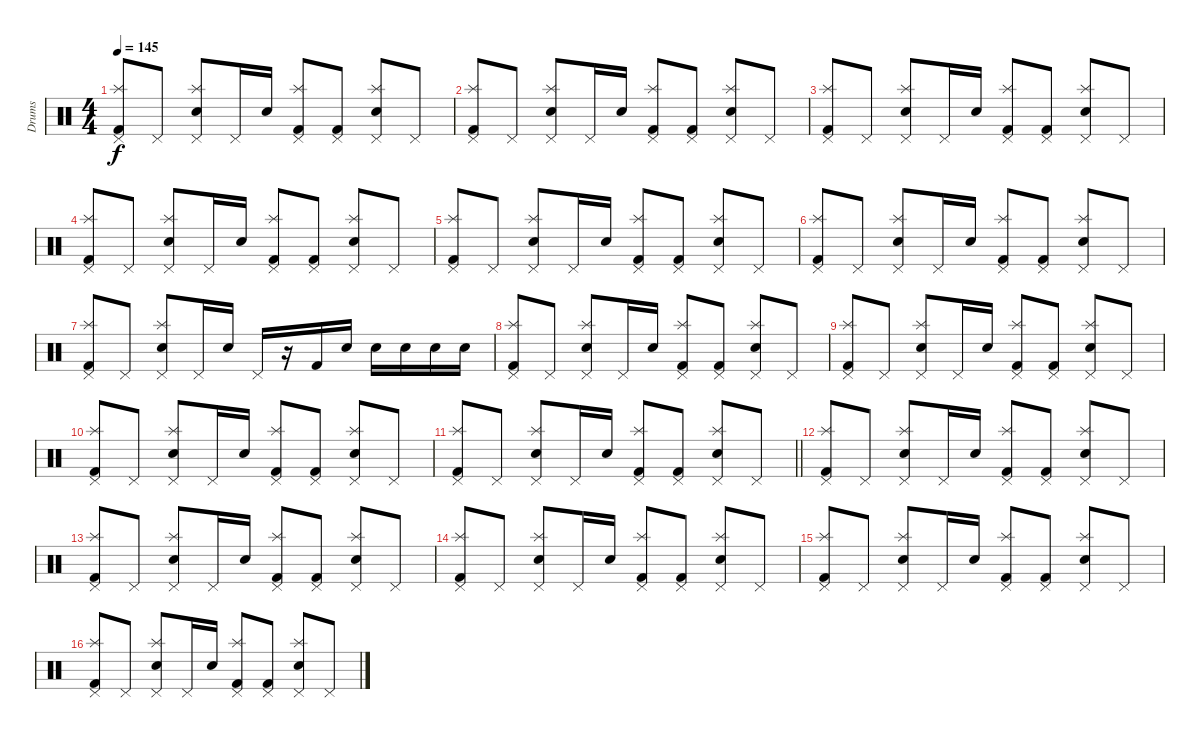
\track ("Drums" "Drums") {instrument percussion}
\staff {score}
\articulation defaults
\ts (4 4)
\tempo 145
\clef neutral
\ks c
("Pedal Hi-Hat (hit)" "Splash (hit)" "Kick (hit) 2").8{dy f} "Pedal Hi-Hat (hit)".8 ("Pedal Hi-Hat (hit)" "Splash (hit)" "Electric Snare (hit)").8 "Pedal Hi-Hat (hit)".16 "Electric Snare (hit)".16 ("Pedal Hi-Hat (hit)" "Splash (hit)" "Kick (hit) 2").8 ("Pedal Hi-Hat (hit)" "Kick (hit) 2").8 ("Pedal Hi-Hat (hit)" "Splash (hit)" "Electric Snare (hit)").8 "Pedal Hi-Hat (hit)".8 |
("Pedal Hi-Hat (hit)" "Splash (hit)" "Kick (hit) 2").8 "Pedal Hi-Hat (hit)".8 ("Pedal Hi-Hat (hit)" "Splash (hit)" "Electric Snare (hit)").8 "Pedal Hi-Hat (hit)".16 "Electric Snare (hit)".16 ("Pedal Hi-Hat (hit)" "Splash (hit)" "Kick (hit) 2").8 ("Pedal Hi-Hat (hit)" "Kick (hit) 2").8 ("Pedal Hi-Hat (hit)" "Splash (hit)" "Electric Snare (hit)").8 "Pedal Hi-Hat (hit)".8 |
("Pedal Hi-Hat (hit)" "Splash (hit)" "Kick (hit) 2").8 "Pedal Hi-Hat (hit)".8 ("Pedal Hi-Hat (hit)" "Splash (hit)" "Electric Snare (hit)").8 "Pedal Hi-Hat (hit)".16 "Electric Snare (hit)".16 ("Pedal Hi-Hat (hit)" "Splash (hit)" "Kick (hit) 2").8 ("Pedal Hi-Hat (hit)" "Kick (hit) 2").8 ("Pedal Hi-Hat (hit)" "Splash (hit)" "Electric Snare (hit)").8 "Pedal Hi-Hat (hit)".8 |
("Pedal Hi-Hat (hit)" "Splash (hit)" "Kick (hit) 2").8 "Pedal Hi-Hat (hit)".8 ("Pedal Hi-Hat (hit)" "Splash (hit)" "Electric Snare (hit)").8 "Pedal Hi-Hat (hit)".16 "Electric Snare (hit)".16 ("Pedal Hi-Hat (hit)" "Splash (hit)" "Kick (hit) 2").8 ("Pedal Hi-Hat (hit)" "Kick (hit) 2").8 ("Pedal Hi-Hat (hit)" "Splash (hit)" "Electric Snare (hit)").8 "Pedal Hi-Hat (hit)".8 |
("Pedal Hi-Hat (hit)" "Splash (hit)" "Kick (hit) 2").8 "Pedal Hi-Hat (hit)".8 ("Pedal Hi-Hat (hit)" "Splash (hit)" "Electric Snare (hit)").8 "Pedal Hi-Hat (hit)".16 "Electric Snare (hit)".16 ("Pedal Hi-Hat (hit)" "Splash (hit)" "Kick (hit) 2").8 ("Pedal Hi-Hat (hit)" "Kick (hit) 2").8 ("Pedal Hi-Hat (hit)" "Splash (hit)" "Electric Snare (hit)").8 "Pedal Hi-Hat (hit)".8 |
("Pedal Hi-Hat (hit)" "Splash (hit)" "Kick (hit) 2").8 "Pedal Hi-Hat (hit)".8 ("Pedal Hi-Hat (hit)" "Splash (hit)" "Electric Snare (hit)").8 "Pedal Hi-Hat (hit)".16 "Electric Snare (hit)".16 ("Pedal Hi-Hat (hit)" "Splash (hit)" "Kick (hit) 2").8 ("Pedal Hi-Hat (hit)" "Kick (hit) 2").8 ("Pedal Hi-Hat (hit)" "Splash (hit)" "Electric Snare (hit)").8 "Pedal Hi-Hat (hit)".8 |
("Pedal Hi-Hat (hit)" "Splash (hit)" "Kick (hit) 2").8 "Pedal Hi-Hat (hit)".8 ("Pedal Hi-Hat (hit)" "Splash (hit)" "Electric Snare (hit)").8 "Pedal Hi-Hat (hit)".16 "Electric Snare (hit)".16 "Pedal Hi-Hat (hit)".16 r.16 "Kick (hit) 2".16 "Electric Snare (hit)".16 "Electric Snare (hit)".16 "Electric Snare (hit)".16 "Electric Snare (hit)".16 "Electric Snare (hit)".16 |
("Pedal Hi-Hat (hit)" "Splash (hit)" "Kick (hit) 2").8 "Pedal Hi-Hat (hit)".8 ("Pedal Hi-Hat (hit)" "Splash (hit)" "Electric Snare (hit)").8 "Pedal Hi-Hat (hit)".16 "Electric Snare (hit)".16 ("Pedal Hi-Hat (hit)" "Splash (hit)" "Kick (hit) 2").8 ("Pedal Hi-Hat (hit)" "Kick (hit) 2").8 ("Pedal Hi-Hat (hit)" "Splash (hit)" "Electric Snare (hit)").8 "Pedal Hi-Hat (hit)".8 |
("Pedal Hi-Hat (hit)" "Splash (hit)" "Kick (hit) 2").8 "Pedal Hi-Hat (hit)".8 ("Pedal Hi-Hat (hit)" "Splash (hit)" "Electric Snare (hit)").8 "Pedal Hi-Hat (hit)".16 "Electric Snare (hit)".16 ("Pedal Hi-Hat (hit)" "Splash (hit)" "Kick (hit) 2").8 ("Pedal Hi-Hat (hit)" "Kick (hit) 2").8 ("Pedal Hi-Hat (hit)" "Splash (hit)" "Electric Snare (hit)").8 "Pedal Hi-Hat (hit)".8 |
("Pedal Hi-Hat (hit)" "Splash (hit)" "Kick (hit) 2").8 "Pedal Hi-Hat (hit)".8 ("Pedal Hi-Hat (hit)" "Splash (hit)" "Electric Snare (hit)").8 "Pedal Hi-Hat (hit)".16 "Electric Snare (hit)".16 ("Pedal Hi-Hat (hit)" "Splash (hit)" "Kick (hit) 2").8 ("Pedal Hi-Hat (hit)" "Kick (hit) 2").8 ("Pedal Hi-Hat (hit)" "Splash (hit)" "Electric Snare (hit)").8 "Pedal Hi-Hat (hit)".8 |
\barLineRight lightlight
("Pedal Hi-Hat (hit)" "Splash (hit)" "Kick (hit) 2").8 "Pedal Hi-Hat (hit)".8 ("Pedal Hi-Hat (hit)" "Splash (hit)" "Electric Snare (hit)").8 "Pedal Hi-Hat (hit)".16 "Electric Snare (hit)".16 ("Pedal Hi-Hat (hit)" "Splash (hit)" "Kick (hit) 2").8 ("Pedal Hi-Hat (hit)" "Kick (hit) 2").8 ("Pedal Hi-Hat (hit)" "Splash (hit)" "Electric Snare (hit)").8 "Pedal Hi-Hat (hit)".8 |
("Pedal Hi-Hat (hit)" "Splash (hit)" "Kick (hit) 2").8 "Pedal Hi-Hat (hit)".8 ("Pedal Hi-Hat (hit)" "Splash (hit)" "Electric Snare (hit)").8 "Pedal Hi-Hat (hit)".16 "Electric Snare (hit)".16 ("Pedal Hi-Hat (hit)" "Splash (hit)" "Kick (hit) 2").8 ("Pedal Hi-Hat (hit)" "Kick (hit) 2").8 ("Pedal Hi-Hat (hit)" "Splash (hit)" "Electric Snare (hit)").8 "Pedal Hi-Hat (hit)".8 |
("Pedal Hi-Hat (hit)" "Splash (hit)" "Kick (hit) 2").8 "Pedal Hi-Hat (hit)".8 ("Pedal Hi-Hat (hit)" "Splash (hit)" "Electric Snare (hit)").8 "Pedal Hi-Hat (hit)".16 "Electric Snare (hit)".16 ("Pedal Hi-Hat (hit)" "Splash (hit)" "Kick (hit) 2").8 ("Pedal Hi-Hat (hit)" "Kick (hit) 2").8 ("Pedal Hi-Hat (hit)" "Splash (hit)" "Electric Snare (hit)").8 "Pedal Hi-Hat (hit)".8 |
("Pedal Hi-Hat (hit)" "Splash (hit)" "Kick (hit) 2").8 "Pedal Hi-Hat (hit)".8 ("Pedal Hi-Hat (hit)" "Splash (hit)" "Electric Snare (hit)").8 "Pedal Hi-Hat (hit)".16 "Electric Snare (hit)".16 ("Pedal Hi-Hat (hit)" "Splash (hit)" "Kick (hit) 2").8 ("Pedal Hi-Hat (hit)" "Kick (hit) 2").8 ("Pedal Hi-Hat (hit)" "Splash (hit)" "Electric Snare (hit)").8 "Pedal Hi-Hat (hit)".8 |
("Pedal Hi-Hat (hit)" "Splash (hit)" "Kick (hit) 2").8 "Pedal Hi-Hat (hit)".8 ("Pedal Hi-Hat (hit)" "Splash (hit)" "Electric Snare (hit)").8 "Pedal Hi-Hat (hit)".16 "Electric Snare (hit)".16 ("Pedal Hi-Hat (hit)" "Splash (hit)" "Kick (hit) 2").8 ("Pedal Hi-Hat (hit)" "Kick (hit) 2").8 ("Pedal Hi-Hat (hit)" "Splash (hit)" "Electric Snare (hit)").8 "Pedal Hi-Hat (hit)".8 |
("Pedal Hi-Hat (hit)" "Splash (hit)" "Kick (hit) 2").8 "Pedal Hi-Hat (hit)".8 ("Pedal Hi-Hat (hit)" "Splash (hit)" "Electric Snare (hit)").8 "Pedal Hi-Hat (hit)".16 "Electric Snare (hit)".16 ("Pedal Hi-Hat (hit)" "Splash (hit)" "Kick (hit) 2").8 ("Pedal Hi-Hat (hit)" "Kick (hit) 2").8 ("Pedal Hi-Hat (hit)" "Splash (hit)" "Electric Snare (hit)").8 "Pedal Hi-Hat (hit)".8
